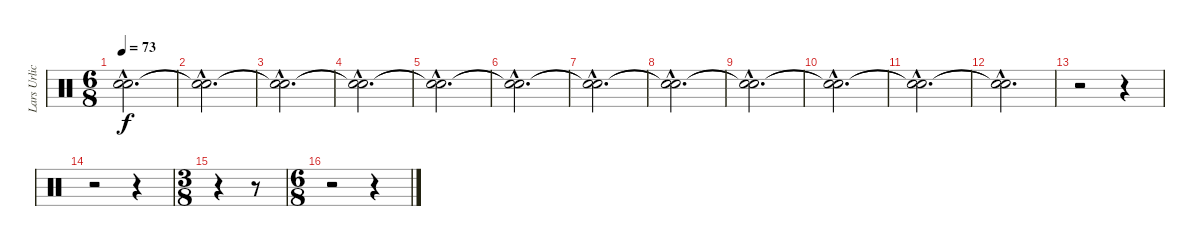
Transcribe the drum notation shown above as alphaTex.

\track ("Lars Urlich" "Lars Urlic") {instrument percussion}
\staff {score}
\articulation defaults
\ts (6 8)
\tempo 73
\clef neutral
\ks c
("Snare (hit)"{hac t} "Snare (hit)"{hac t}).2{d dy f} |
("Snare (hit)"{hac t} "Snare (hit)"{hac t}).2{d} |
("Snare (hit)"{hac t} "Snare (hit)"{hac t}).2{d} |
("Snare (hit)"{hac t} "Snare (hit)"{hac t}).2{d} |
("Snare (hit)"{hac t} "Snare (hit)"{hac t}).2{d} |
("Snare (hit)"{hac t} "Snare (hit)"{hac t}).2{d} |
("Snare (hit)"{hac t} "Snare (hit)"{hac t}).2{d} |
("Snare (hit)"{hac t} "Snare (hit)"{hac t}).2{d} |
("Snare (hit)"{hac t} "Snare (hit)"{hac t}).2{d} |
("Snare (hit)"{hac t} "Snare (hit)"{hac t}).2{d} |
("Snare (hit)"{hac t} "Snare (hit)"{hac t}).2{d} |
("Snare (hit)"{hac t} "Snare (hit)"{hac t}).2{d} |
r.2 r.4 |
r.2 r.4 |
\ts (3 8)
r.4 r.8 |
\ts (6 8)
r.2 r.4
